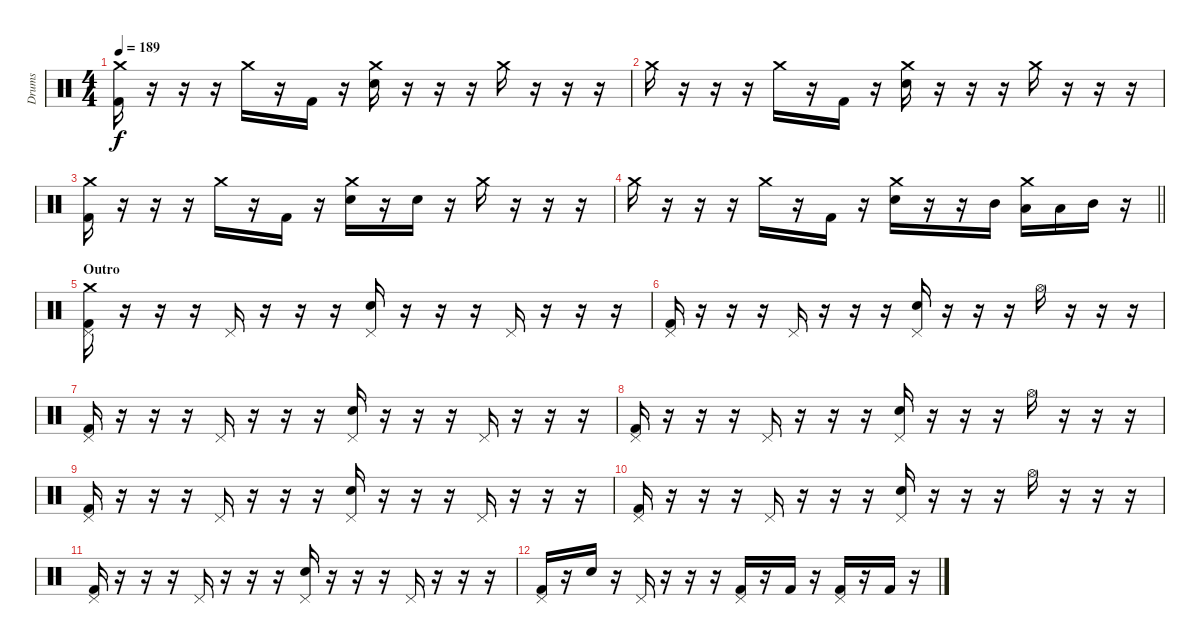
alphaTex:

\track ("Drums" "Drums") {instrument percussion}
\staff {score}
\articulation defaults
\ts (4 4)
\tempo 189
\clef neutral
\ks c
("Crash medium (hit)" "Kick (hit) 2").16{dy f} r.16 r.16 r.16 "Crash medium (hit)".16 r.16 "Kick (hit) 2".16 r.16 ("Crash medium (hit)" "Electric Snare (hit)").16 r.16 r.16 r.16 "Crash medium (hit)".16 r.16 r.16 r.16 |
"Crash medium (hit)".16 r.16 r.16 r.16 "Crash medium (hit)".16 r.16 "Kick (hit) 2".16 r.16 ("Crash medium (hit)" "Electric Snare (hit)").16 r.16 r.16 r.16 "Crash medium (hit)".16 r.16 r.16 r.16 |
("Crash medium (hit)" "Kick (hit) 2").16 r.16 r.16 r.16 "Crash medium (hit)".16 r.16 "Kick (hit) 2".16 r.16 ("Crash medium (hit)" "Electric Snare (hit)").16 r.16 "Electric Snare (hit)".16 r.16 "Crash medium (hit)".16 r.16 r.16 r.16 |
\barLineRight lightlight "Crash medium (hit)".16
r.16 r.16 r.16 "Crash medium (hit)".16 r.16 "Kick (hit) 2".16 r.16 ("Crash medium (hit)" "Electric Snare (hit)").16 r.16 r.16 "Mid Tom (hit)".16 ("Crash medium (hit)" "Low Tom (hit)").16 "Low Floor Tom (hit)".16 "Mid Tom (hit)".16 r.16 |
\section ("" "Outro")
("Pedal Hi-Hat (hit)" "Kick (hit) 2" "Crash medium (hit)").16 r.16 r.16 r.16 "Pedal Hi-Hat (hit)".16 r.16 r.16 r.16 ("Pedal Hi-Hat (hit)" "Snare (hit) 2").16 r.16 r.16 r.16 "Pedal Hi-Hat (hit)".16 r.16 r.16 r.16 |
("Pedal Hi-Hat (hit)" "Kick (hit) 2").16 r.16 r.16 r.16 "Pedal Hi-Hat (hit)".16 r.16 r.16 r.16 ("Pedal Hi-Hat (hit)" "Snare (hit) 2").16 r.16 r.16 r.16 "Hi-Hat (open)".16 r.16 r.16 r.16 |
("Pedal Hi-Hat (hit)" "Kick (hit) 2").16 r.16 r.16 r.16 "Pedal Hi-Hat (hit)".16 r.16 r.16 r.16 ("Pedal Hi-Hat (hit)" "Snare (hit) 2").16 r.16 r.16 r.16 "Pedal Hi-Hat (hit)".16 r.16 r.16 r.16 |
("Pedal Hi-Hat (hit)" "Kick (hit) 2").16 r.16 r.16 r.16 "Pedal Hi-Hat (hit)".16 r.16 r.16 r.16 ("Pedal Hi-Hat (hit)" "Snare (hit) 2").16 r.16 r.16 r.16 "Hi-Hat (open)".16 r.16 r.16 r.16 |
("Pedal Hi-Hat (hit)" "Kick (hit) 2").16 r.16 r.16 r.16 "Pedal Hi-Hat (hit)".16 r.16 r.16 r.16 ("Pedal Hi-Hat (hit)" "Snare (hit) 2").16 r.16 r.16 r.16 "Pedal Hi-Hat (hit)".16 r.16 r.16 r.16 |
("Pedal Hi-Hat (hit)" "Kick (hit) 2").16 r.16 r.16 r.16 "Pedal Hi-Hat (hit)".16 r.16 r.16 r.16 ("Pedal Hi-Hat (hit)" "Snare (hit) 2").16 r.16 r.16 r.16 "Hi-Hat (open)".16 r.16 r.16 r.16 |
("Pedal Hi-Hat (hit)" "Kick (hit) 2").16 r.16 r.16 r.16 "Pedal Hi-Hat (hit)".16 r.16 r.16 r.16 ("Pedal Hi-Hat (hit)" "Snare (hit) 2").16 r.16 r.16 r.16 "Pedal Hi-Hat (hit)".16 r.16 r.16 r.16 |
("Pedal Hi-Hat (hit)" "Kick (hit) 2").16 r.16 "Snare (hit) 2".16 r.16 "Pedal Hi-Hat (hit)".16 r.16 r.16 r.16 ("Pedal Hi-Hat (hit)" "Kick (hit) 2").16 r.16 "Kick (hit) 2".16 r.16 ("Pedal Hi-Hat (hit)" "Kick (hit) 2").16 r.16 "Kick (hit) 2".16 r.16
